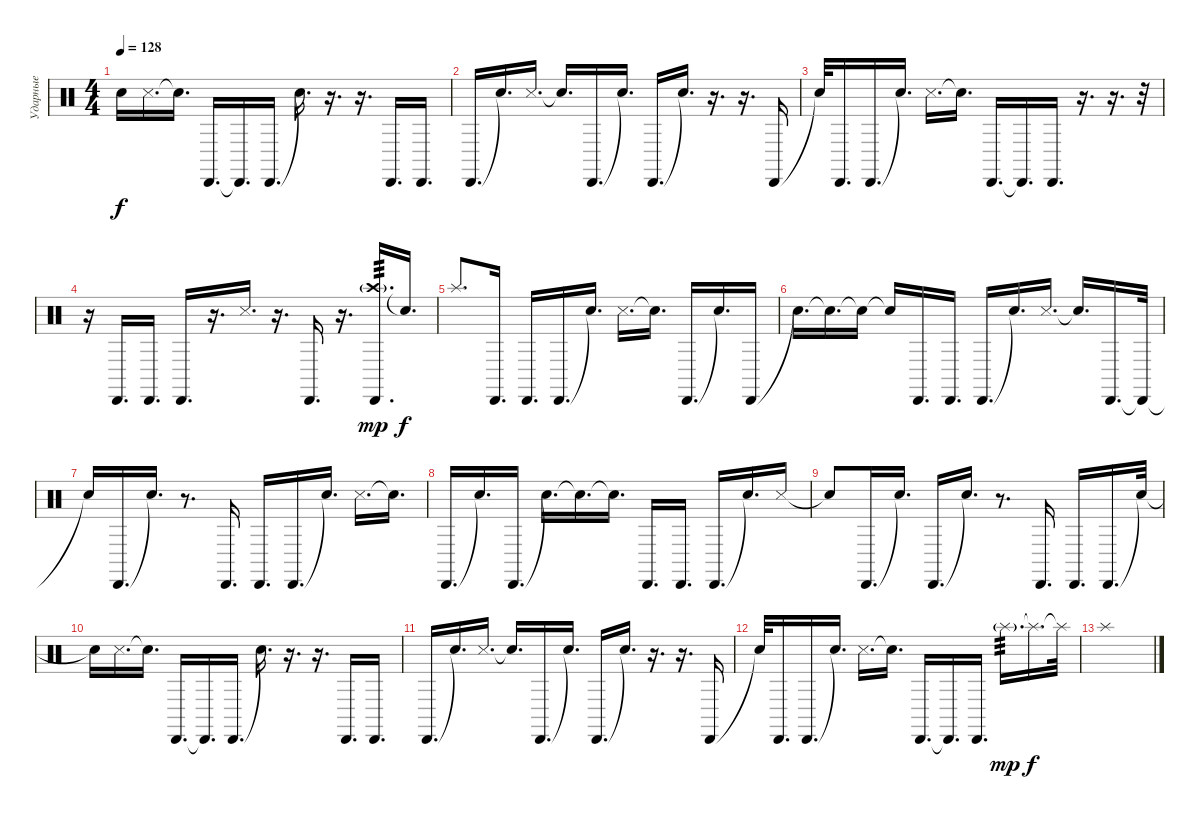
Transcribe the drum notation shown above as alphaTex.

\track ("Ударные" "Ударные") {instrument percussion}
\staff {score}
\articulation defaults
\ts (4 4)
\tempo 128
\clef neutral
\ks c "Snare (hit)"{t}.16{dy f} "Metronome (hit)".16{d} "Snare (hit)"{t}.16{d} "Cabasa (hit)".16{d} "Cabasa (hit)"{t}.16{d} "Cabasa (hit)".16{d} "Snare (hit)"{t}.16{d}
r.16{d} r.16{d} "Cabasa (hit)".16{d} "Cabasa (hit)".16{d} |
"Cabasa (hit)".16{d} "Snare (hit)"{t}.16{d} "Metronome (hit)".16{d} "Snare (hit)"{t}.16{d} "Cabasa (hit)".16{d} "Snare (hit)"{t}.16{d} "Cabasa (hit)".16{d} "Snare (hit)"{t}.16{d} r.16{d} r.16{d} "Cabasa (hit)".16 |
"Snare (hit)"{t}.32 "Cabasa (hit)".16{d} "Cabasa (hit)".16{d} "Snare (hit)"{t}.16{d} "Metronome (hit)".16{d} "Snare (hit)"{t}.16{d} "Cabasa (hit)".16{d} "Cabasa (hit)"{t}.16{d} "Cabasa (hit)".16{d} r.16{d} r.16{d} r.32 |
r.16 "Cabasa (hit)".16{d} "Cabasa (hit)".16{d} "Cabasa (hit)".16{d} r.16{d} "Metronome (hit)".16{d} r.16{d} "Cabasa (hit)".16{d} r.16{d} ("Crash high (hit)"{g} "Cabasa (hit)").16{d tp 3 dy mp} "Snare (hit)"{t}.16{d dy f} |
"Splash (hit)".8{d} "Cabasa (hit)".16{d} "Cabasa (hit)".16{d} "Cabasa (hit)".16{d} "Snare (hit)"{t}.16{d} "Metronome (hit)".16{d} "Snare (hit)"{t}.16{d} "Cabasa (hit)".16{d} "Snare (hit)"{t}.16{d} "Cabasa (hit)".16 |
"Snare (hit)"{t}.16{d} "Snare (hit)"{t}.16{d} "Snare (hit)"{t}.16 "Snare (hit)"{t}.16 "Cabasa (hit)".16{d} "Cabasa (hit)".16{d} "Cabasa (hit)".16{d} "Snare (hit)"{t}.16{d} "Metronome (hit)".16{d} "Snare (hit)"{t}.16{d} "Cabasa (hit)".16{d} "Cabasa (hit)"{t}.32 |
"Snare (hit)"{t}.16 "Cabasa (hit)".16{d} "Snare (hit)"{t}.16{d} r.8{d} "Cabasa (hit)".16{d} "Cabasa (hit)".16{d} "Cabasa (hit)".16{d} "Snare (hit)"{t}.16{d} "Metronome (hit)".16{d} "Snare (hit)"{t}.16{d} |
"Cabasa (hit)".16{d} "Snare (hit)"{t}.16{d} "Cabasa (hit)".16{d} "Snare (hit)"{t}.16{d} "Snare (hit)"{t}.16{d} "Snare (hit)"{t}.16{d} "Cabasa (hit)".16{d} "Cabasa (hit)".16{d} "Cabasa (hit)".16{d} "Snare (hit)"{t}.16{d} "Metronome (hit)".16 |
"Snare (hit)"{t}.8 "Cabasa (hit)".16{d} "Snare (hit)"{t}.16{d} "Cabasa (hit)".16{d} "Snare (hit)"{t}.16{d} r.8{d} "Cabasa (hit)".16{d} "Cabasa (hit)".16{d} "Cabasa (hit)".16{d} "Snare (hit)"{t}.32 |
"Snare (hit)"{t}.16 "Metronome (hit)".16{d} "Snare (hit)"{t}.16{d} "Cabasa (hit)".16{d} "Cabasa (hit)"{t}.16{d} "Cabasa (hit)".16{d} "Snare (hit)"{t}.16{d} r.16{d} r.16{d} "Cabasa (hit)".16{d} "Cabasa (hit)".16{d} |
"Cabasa (hit)".16{d} "Snare (hit)"{t}.16{d} "Metronome (hit)".16{d} "Snare (hit)"{t}.16{d} "Cabasa (hit)".16{d} "Snare (hit)"{t}.16{d} "Cabasa (hit)".16{d} "Snare (hit)"{t}.16{d} r.16{d} r.16{d} "Cabasa (hit)".16 |
"Snare (hit)"{t}.32 "Cabasa (hit)".16{d} "Cabasa (hit)".16{d} "Snare (hit)"{t}.16{d} "Metronome (hit)".16{d} "Snare (hit)"{t}.16{d} "Cabasa (hit)".16{d} "Cabasa (hit)"{t}.16{d} "Cabasa (hit)".16{d} "Splash (hit)"{g}.16{d tp 3 dy mp} "Splash (hit)"{t}.16{d dy f} "Splash (hit)"{t}.32 |
"Splash (hit)".1
